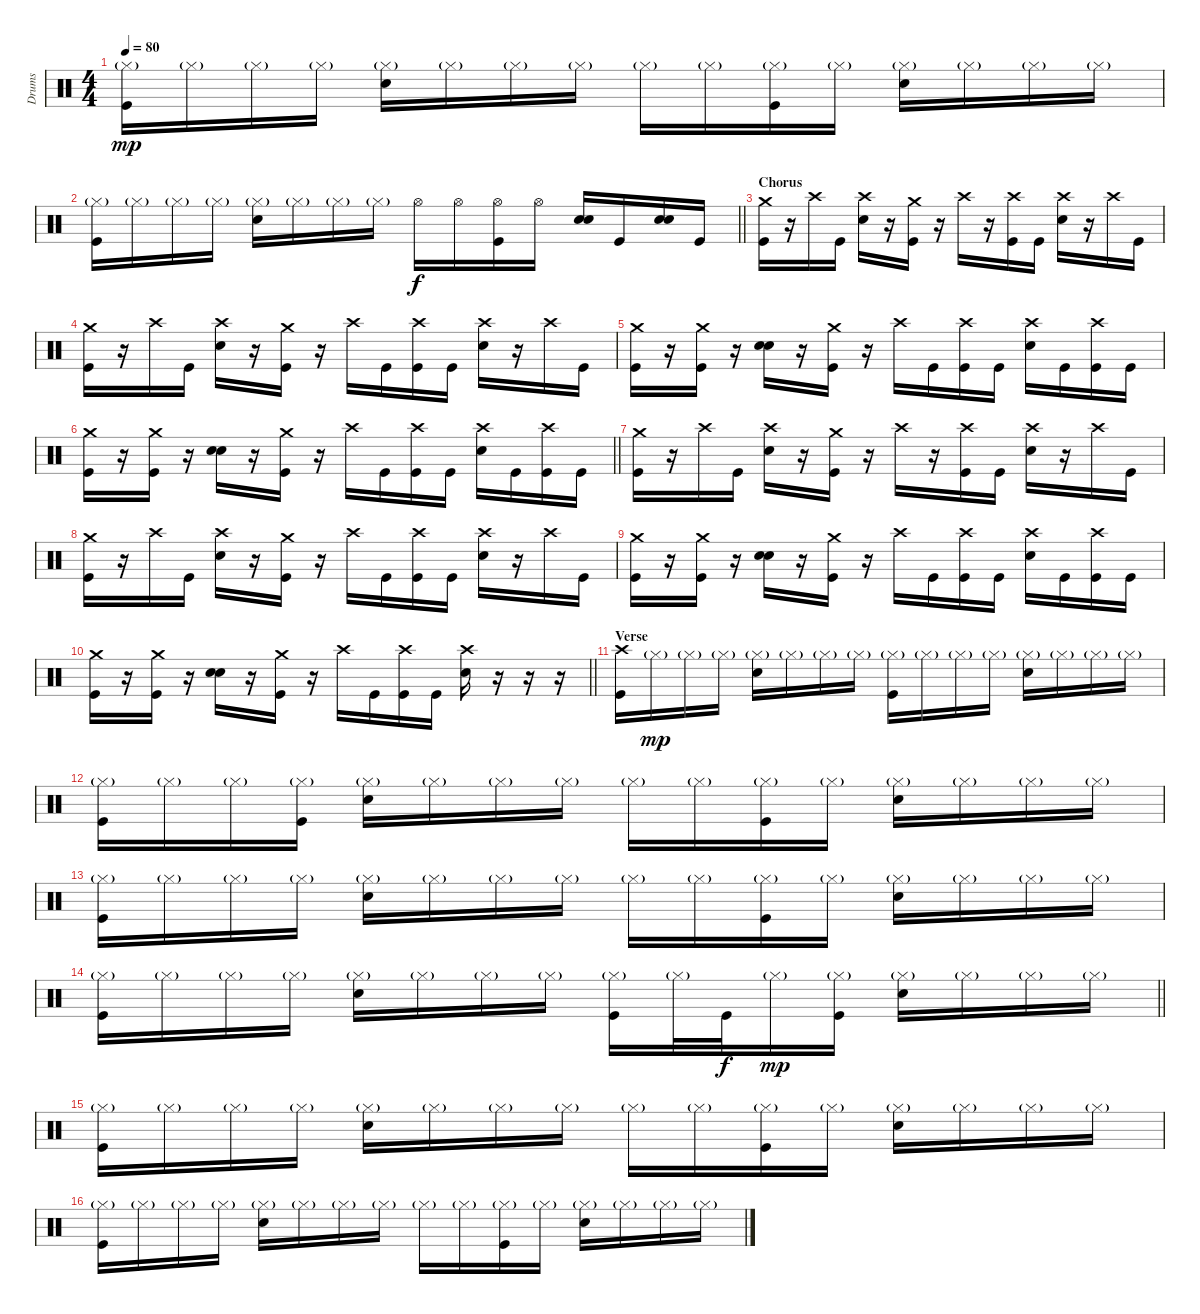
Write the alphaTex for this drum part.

\track ("Drums" "Drums") {instrument percussion}
\staff {score}
\articulation defaults
\ts (4 4)
\tempo 80
\clef neutral
\ks c
("Hi-Hat (closed)"{g} "Kick (hit)").16{dy mp} "Hi-Hat (closed)"{g}.16 "Hi-Hat (closed)"{g}.16 "Hi-Hat (closed)"{g}.16 ("Hi-Hat (closed)"{g} "Snare (hit) 2").16 "Hi-Hat (closed)"{g}.16 "Hi-Hat (closed)"{g}.16 "Hi-Hat (closed)"{g}.16 "Hi-Hat (closed)"{g}.16 "Hi-Hat (closed)"{g}.16 ("Hi-Hat (closed)"{g} "Kick (hit)").16 "Hi-Hat (closed)"{g}.16 ("Hi-Hat (closed)"{g} "Snare (hit) 2").16 "Hi-Hat (closed)"{g}.16 "Hi-Hat (closed)"{g}.16 "Hi-Hat (closed)"{g}.16 |
\barLineRight lightlight
("Hi-Hat (closed)"{g} "Kick (hit)").16 "Hi-Hat (closed)"{g}.16 "Hi-Hat (closed)"{g}.16 "Hi-Hat (closed)"{g}.16 ("Hi-Hat (closed)"{g} "Snare (hit) 2").16 "Hi-Hat (closed)"{g}.16 "Hi-Hat (closed)"{g}.16 "Hi-Hat (closed)"{g}.16 "Hi-Hat (open)".16{dy f} "Hi-Hat (open)".16 ("Hi-Hat (open)" "Kick (hit)").16 "Hi-Hat (open)".16 ("Snare (hit) 2" "Snare (hit) 2").16 "Kick (hit)".16 ("Snare (hit) 2" "Snare (hit) 2").16 "Kick (hit)".16 |
\section ("" "Chorus")
("Crash medium (hit)" "Kick (hit)").16 r.16 "Crash high (hit)".16 "Kick (hit)".16 ("Crash high (hit)" "Snare (hit) 2").16 r.16 ("Crash medium (hit)" "Kick (hit)").16 r.16 "Crash high (hit)".16 r.16 ("Crash high (hit)" "Kick (hit)").16 "Kick (hit)".16 ("Crash high (hit)" "Snare (hit) 2").16 r.16 "Crash high (hit)".16 "Kick (hit)".16 |
("Crash medium (hit)" "Kick (hit)").16 r.16 "Crash high (hit)".16 "Kick (hit)".16 ("Crash high (hit)" "Snare (hit) 2").16 r.16 ("Crash medium (hit)" "Kick (hit)").16 r.16 "Crash high (hit)".16 "Kick (hit)".16 ("Crash high (hit)" "Kick (hit)").16 "Kick (hit)".16 ("Crash high (hit)" "Snare (hit) 2").16 r.16 "Crash high (hit)".16 "Kick (hit)".16 |
("Crash medium (hit)" "Kick (hit)").16 r.16 ("Crash medium (hit)" "Kick (hit)").16 r.16 ("Snare (hit) 2" "Snare (hit) 2").16 r.16 ("Crash medium (hit)" "Kick (hit)").16 r.16 "Crash high (hit)".16 "Kick (hit)".16 ("Crash high (hit)" "Kick (hit)").16 "Kick (hit)".16 ("Crash high (hit)" "Snare (hit) 2").16 "Kick (hit)".16 ("Crash high (hit)" "Kick (hit)").16 "Kick (hit)".16 |
\barLineRight lightlight
("Crash medium (hit)" "Kick (hit)").16 r.16 ("Crash medium (hit)" "Kick (hit)").16 r.16 ("Snare (hit) 2" "Snare (hit) 2").16 r.16 ("Crash medium (hit)" "Kick (hit)").16 r.16 "Crash high (hit)".16 "Kick (hit)".16 ("Crash high (hit)" "Kick (hit)").16 "Kick (hit)".16 ("Crash high (hit)" "Snare (hit) 2").16 "Kick (hit)".16 ("Crash high (hit)" "Kick (hit)").16 "Kick (hit)".16 |
("Crash medium (hit)" "Kick (hit)").16 r.16 "Crash high (hit)".16 "Kick (hit)".16 ("Crash high (hit)" "Snare (hit) 2").16 r.16 ("Crash medium (hit)" "Kick (hit)").16 r.16 "Crash high (hit)".16 r.16 ("Crash high (hit)" "Kick (hit)").16 "Kick (hit)".16 ("Crash high (hit)" "Snare (hit) 2").16 r.16 "Crash high (hit)".16 "Kick (hit)".16 |
("Crash medium (hit)" "Kick (hit)").16 r.16 "Crash high (hit)".16 "Kick (hit)".16 ("Crash high (hit)" "Snare (hit) 2").16 r.16 ("Crash medium (hit)" "Kick (hit)").16 r.16 "Crash high (hit)".16 "Kick (hit)".16 ("Crash high (hit)" "Kick (hit)").16 "Kick (hit)".16 ("Crash high (hit)" "Snare (hit) 2").16 r.16 "Crash high (hit)".16 "Kick (hit)".16 |
("Crash medium (hit)" "Kick (hit)").16 r.16 ("Crash medium (hit)" "Kick (hit)").16 r.16 ("Snare (hit) 2" "Snare (hit) 2").16 r.16 ("Crash medium (hit)" "Kick (hit)").16 r.16 "Crash high (hit)".16 "Kick (hit)".16 ("Crash high (hit)" "Kick (hit)").16 "Kick (hit)".16 ("Crash high (hit)" "Snare (hit) 2").16 "Kick (hit)".16 ("Crash high (hit)" "Kick (hit)").16 "Kick (hit)".16 |
\barLineRight lightlight
("Crash medium (hit)" "Kick (hit)").16 r.16 ("Crash medium (hit)" "Kick (hit)").16 r.16 ("Snare (hit) 2" "Snare (hit) 2").16 r.16 ("Crash medium (hit)" "Kick (hit)").16 r.16 "Crash high (hit)".16 "Kick (hit)".16 ("Crash high (hit)" "Kick (hit)").16 "Kick (hit)".16 ("Crash high (hit)" "Snare (hit) 2").16 r.16 r.16 r.16 |
\section ("" "Verse")
("Crash high (hit)" "Kick (hit)").16 "Hi-Hat (closed)"{g}.16{dy mp} "Hi-Hat (closed)"{g}.16 "Hi-Hat (closed)"{g}.16 ("Hi-Hat (closed)"{g} "Snare (hit) 2").16 "Hi-Hat (closed)"{g}.16 "Hi-Hat (closed)"{g}.16 "Hi-Hat (closed)"{g}.16 ("Hi-Hat (closed)"{g} "Kick (hit)").16 "Hi-Hat (closed)"{g}.16 "Hi-Hat (closed)"{g}.16 "Hi-Hat (closed)"{g}.16 ("Hi-Hat (closed)"{g} "Snare (hit) 2").16 "Hi-Hat (closed)"{g}.16 "Hi-Hat (closed)"{g}.16 "Hi-Hat (closed)"{g}.16 |
("Hi-Hat (closed)"{g} "Kick (hit)").16 "Hi-Hat (closed)"{g}.16 "Hi-Hat (closed)"{g}.16 ("Hi-Hat (closed)"{g} "Kick (hit)").16 ("Hi-Hat (closed)"{g} "Snare (hit) 2").16 "Hi-Hat (closed)"{g}.16 "Hi-Hat (closed)"{g}.16 "Hi-Hat (closed)"{g}.16 "Hi-Hat (closed)"{g}.16 "Hi-Hat (closed)"{g}.16 ("Hi-Hat (closed)"{g} "Kick (hit)").16 "Hi-Hat (closed)"{g}.16 ("Hi-Hat (closed)"{g} "Snare (hit) 2").16 "Hi-Hat (closed)"{g}.16 "Hi-Hat (closed)"{g}.16 "Hi-Hat (closed)"{g}.16 |
("Hi-Hat (closed)"{g} "Kick (hit)").16 "Hi-Hat (closed)"{g}.16 "Hi-Hat (closed)"{g}.16 "Hi-Hat (closed)"{g}.16 ("Hi-Hat (closed)"{g} "Snare (hit) 2").16 "Hi-Hat (closed)"{g}.16 "Hi-Hat (closed)"{g}.16 "Hi-Hat (closed)"{g}.16 "Hi-Hat (closed)"{g}.16 "Hi-Hat (closed)"{g}.16 ("Hi-Hat (closed)"{g} "Kick (hit)").16 "Hi-Hat (closed)"{g}.16 ("Hi-Hat (closed)"{g} "Snare (hit) 2").16 "Hi-Hat (closed)"{g}.16 "Hi-Hat (closed)"{g}.16 "Hi-Hat (closed)"{g}.16 |
\barLineRight lightlight
("Hi-Hat (closed)"{g} "Kick (hit)").16 "Hi-Hat (closed)"{g}.16 "Hi-Hat (closed)"{g}.16 "Hi-Hat (closed)"{g}.16 ("Hi-Hat (closed)"{g} "Snare (hit) 2").16 "Hi-Hat (closed)"{g}.16 "Hi-Hat (closed)"{g}.16 "Hi-Hat (closed)"{g}.16 ("Hi-Hat (closed)"{g} "Kick (hit)").16 "Hi-Hat (closed)"{g}.32 "Kick (hit)".32{dy f} "Hi-Hat (closed)"{g}.16{dy mp} ("Hi-Hat (closed)"{g} "Kick (hit)").16 ("Hi-Hat (closed)"{g} "Snare (hit) 2").16 "Hi-Hat (closed)"{g}.16 "Hi-Hat (closed)"{g}.16 "Hi-Hat (closed)"{g}.16 |
("Hi-Hat (closed)"{g} "Kick (hit)").16 "Hi-Hat (closed)"{g}.16 "Hi-Hat (closed)"{g}.16 "Hi-Hat (closed)"{g}.16 ("Hi-Hat (closed)"{g} "Snare (hit) 2").16 "Hi-Hat (closed)"{g}.16 "Hi-Hat (closed)"{g}.16 "Hi-Hat (closed)"{g}.16 "Hi-Hat (closed)"{g}.16 "Hi-Hat (closed)"{g}.16 ("Hi-Hat (closed)"{g} "Kick (hit)").16 "Hi-Hat (closed)"{g}.16 ("Hi-Hat (closed)"{g} "Snare (hit) 2").16 "Hi-Hat (closed)"{g}.16 "Hi-Hat (closed)"{g}.16 "Hi-Hat (closed)"{g}.16 |
("Hi-Hat (closed)"{g} "Kick (hit)").16 "Hi-Hat (closed)"{g}.16 "Hi-Hat (closed)"{g}.16 "Hi-Hat (closed)"{g}.16 ("Hi-Hat (closed)"{g} "Snare (hit) 2").16 "Hi-Hat (closed)"{g}.16 "Hi-Hat (closed)"{g}.16 "Hi-Hat (closed)"{g}.16 "Hi-Hat (closed)"{g}.16 "Hi-Hat (closed)"{g}.16 ("Hi-Hat (closed)"{g} "Kick (hit)").16 "Hi-Hat (closed)"{g}.16 ("Hi-Hat (closed)"{g} "Snare (hit) 2").16 "Hi-Hat (closed)"{g}.16 "Hi-Hat (closed)"{g}.16 "Hi-Hat (closed)"{g}.16
